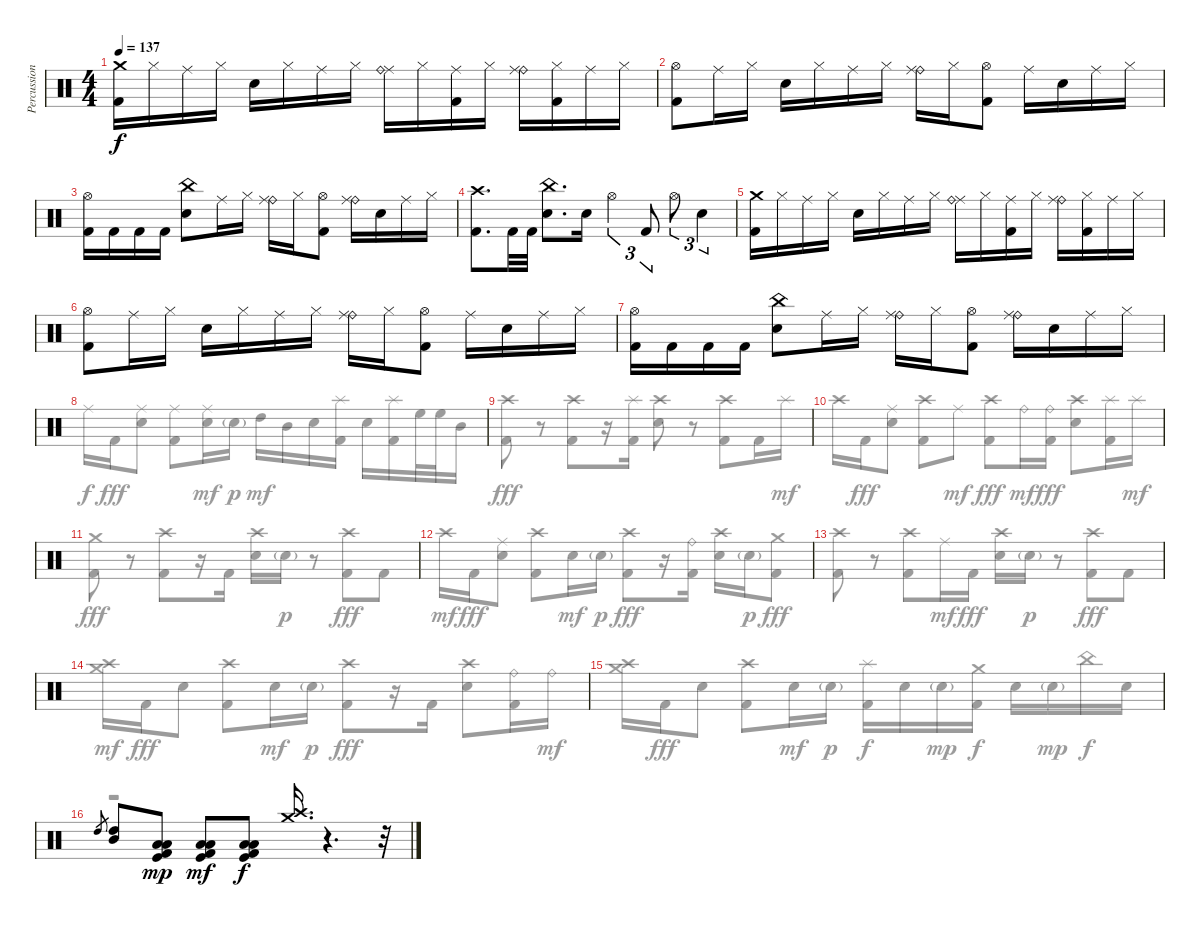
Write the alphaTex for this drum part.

\track ("Percussion" "Percussion") {instrument percussion}
\staff {score}
\articulation defaults
\voice
\ts (4 4)
\tempo 137
\clef neutral
\ks c
("Crash medium (hit)" "Kick (hit) 2").16{dy f} "Hi-Hat (closed)".16 "Ride (middle)".16 "Hi-Hat (closed)".16 "Snare (hit) 2".16 "Hi-Hat (closed)".16 "Ride (middle)".16 "Hi-Hat (closed)".16 ("Ride (middle)" "Ride (bell)").16 "Hi-Hat (closed)".16 ("Ride (middle)" "Kick (hit) 2").16 "Hi-Hat (closed)".16 ("Ride (bell)" "Ride (middle)").16 ("Hi-Hat (closed)" "Kick (hit) 2").16 "Ride (middle)".16 "Hi-Hat (closed)".16 |
("Hi-Hat (open)" "Kick (hit) 2").8 "Ride (middle)".16 "Hi-Hat (closed)".16 "Snare (hit) 2".16 "Hi-Hat (closed)".16 "Ride (middle)".16 "Hi-Hat (closed)".16 ("Ride (bell)" "Ride (middle)").16 "Hi-Hat (closed)".16 ("Hi-Hat (open)" "Kick (hit) 2").8 "Ride (middle)".16 "Snare (hit) 2".16 "Ride (middle)".16 "Hi-Hat (closed)".16 |
("Hi-Hat (open)" "Kick (hit) 2").16 "Kick (hit) 2".16 "Kick (hit) 2".16 "Kick (hit) 2".16 ("China (hit)" "Snare (hit) 2").8 "Ride (middle)".16 "Hi-Hat (closed)".16 ("Ride (bell)" "Ride (middle)").16 "Hi-Hat (closed)".16 ("Hi-Hat (open)" "Kick (hit) 2").8 ("Ride (bell)" "Ride (middle)").16 "Snare (hit) 2".16 "Ride (middle)".16 "Hi-Hat (closed)".16 |
("Crash high (hit)" "Kick (hit) 2").8{d} "Kick (hit) 2".32 "Kick (hit) 2".32 ("China (hit)" "Snare (hit) 2").8{d} "Snare (hit) 2".16 "Hi-Hat (open)".4{tu (3 2)} "Kick (hit) 2".8{tu (3 2)} "Hi-Hat (open)".8{tu (3 2)} "Snare (hit) 2".4{tu (3 2)} |
("Crash medium (hit)" "Kick (hit) 2").16 "Hi-Hat (closed)".16 "Ride (middle)".16 "Hi-Hat (closed)".16 "Snare (hit) 2".16 "Hi-Hat (closed)".16 "Ride (middle)".16 "Hi-Hat (closed)".16 ("Ride (middle)" "Ride (bell)").16 "Hi-Hat (closed)".16 ("Ride (middle)" "Kick (hit) 2").16 "Hi-Hat (closed)".16 ("Ride (bell)" "Ride (middle)").16 ("Hi-Hat (closed)" "Kick (hit) 2").16 "Ride (middle)".16 "Hi-Hat (closed)".16 |
("Hi-Hat (open)" "Kick (hit) 2").8 "Ride (middle)".16 "Hi-Hat (closed)".16 "Snare (hit) 2".16 "Hi-Hat (closed)".16 "Ride (middle)".16 "Hi-Hat (closed)".16 ("Ride (bell)" "Ride (middle)").16 "Hi-Hat (closed)".16 ("Hi-Hat (open)" "Kick (hit) 2").8 "Ride (middle)".16 "Snare (hit) 2".16 "Ride (middle)".16 "Hi-Hat (closed)".16 |
("Hi-Hat (open)" "Kick (hit) 2").16 "Kick (hit) 2".16 "Kick (hit) 2".16 "Kick (hit) 2".16 ("China (hit)" "Snare (hit) 2").8 "Ride (middle)".16 "Hi-Hat (closed)".16 ("Ride (bell)" "Ride (middle)").16 "Hi-Hat (closed)".16 ("Hi-Hat (open)" "Kick (hit) 2").8 ("Ride (bell)" "Ride (middle)").16 "Snare (hit) 2".16 "Ride (middle)".16 "Hi-Hat (closed)".16 |
|
|
|
|
|
|
|
|
"High Tom (hit)".8{gr} ("High Tom (hit)" "Mid Tom (hit)").8 ("Kick (hit)" "Low Tom (hit)" "Low Floor Tom (hit)" "Kick (hit) 2").8{dy mp volume 12} ("Kick (hit)" "Low Tom (hit)" "Low Floor Tom (hit)" "Kick (hit) 2").8{dy mf} ("Kick (hit)" "Low Tom (hit)" "Low Floor Tom (hit)" "Kick (hit) 2").8{dy f} ("Crash medium (hit)" "Crash high (hit)").16{d} r.4{d volume 0} r.32
\voice
\clef neutral
\ottava regular
\simile none
\ks c
|
|
|
|
|
|
|
"Ride (middle)".16 "Kick (hit) 2".16{dy fff} ("Ride (middle)" "Electric Snare (hit)").8 ("Ride (middle)" "Kick (hit) 2").8 ("Ride (middle)" "Electric Snare (hit)").16{dy mf} "Electric Snare (hit)"{g}.16{dy p} "High Tom (hit)".16{dy mf} "Mid Tom (hit)".16 "Electric Snare (hit)".16 ("Splash (hit)" "Kick (hit) 2").16 "Electric Snare (hit)".16 ("Splash (hit)" "Kick (hit) 2").16 "High Floor Tom (hit)".32 "High Floor Tom (hit)".32 "Mid Tom (hit)".16 |
("Crash high (hit)" "Kick (hit) 2").8{dy fff} r.8 ("Crash high (hit)" "Kick (hit) 2").8 r.16 ("Splash (hit)" "Kick (hit) 2").16 ("Crash high (hit)" "Electric Snare (hit)").8 r.8 ("Crash high (hit)" "Kick (hit) 2").8 "Kick (hit) 2".16 "Splash (hit)".16{dy mf} |
"Crash high (hit)".16 "Kick (hit) 2".16{dy fff} ("Ride (middle)" "Electric Snare (hit)").8 ("Crash high (hit)" "Kick (hit) 2").8 "Ride (middle)".8{dy mf} ("Crash high (hit)" "Kick (hit) 2").8{dy fff} "Ride (bell)".16{dy mf} ("Ride (bell)" "Kick (hit) 2").16{dy fff} ("Crash high (hit)" "Electric Snare (hit)").8 ("Splash (hit)" "Kick (hit) 2").16 "Splash (hit)".16{dy mf} |
("Crash medium (hit)" "Kick (hit) 2").8{dy fff} r.8 ("Crash high (hit)" "Kick (hit) 2").8 r.16 "Kick (hit) 2".16 ("Crash high (hit)" "Electric Snare (hit)").16 "Electric Snare (hit)"{g}.16{dy p} r.8 ("Crash high (hit)" "Kick (hit) 2").8{dy fff} "Kick (hit) 2".8 |
"Crash high (hit)".16{dy mf} "Kick (hit) 2".16{dy fff} ("Ride (middle)" "Electric Snare (hit)").8 ("Crash high (hit)" "Kick (hit) 2").8 "Electric Snare (hit)".16{dy mf} "Electric Snare (hit)"{g}.16{dy p} ("Crash high (hit)" "Kick (hit) 2").8{dy fff} r.16 ("Ride (bell)" "Kick (hit) 2").16 ("Crash high (hit)" "Electric Snare (hit)").16 "Electric Snare (hit)"{g}.16{dy p} ("Crash medium (hit)" "Kick (hit) 2").8{dy fff} |
("Crash high (hit)" "Kick (hit) 2").8 r.8 ("Crash high (hit)" "Kick (hit) 2").8 "Ride (middle)".16{dy mf} "Kick (hit) 2".16{dy fff} ("Crash high (hit)" "Electric Snare (hit)").16 "Electric Snare (hit)"{g}.16{dy p} r.8 ("Crash high (hit)" "Kick (hit) 2").8{dy fff} "Kick (hit) 2".8 |
("Crash medium (hit)" "Crash high (hit)").16{dy mf} "Kick (hit) 2".16{dy fff} "Electric Snare (hit)".8 ("Crash high (hit)" "Kick (hit) 2").8 "Electric Snare (hit)".16{dy mf} "Electric Snare (hit)"{g}.16{dy p} ("Crash high (hit)" "Kick (hit) 2").8{dy fff} r.16 "Kick (hit) 2".16 ("Crash high (hit)" "Electric Snare (hit)").8 ("Ride (bell)" "Kick (hit) 2").16 "Ride (bell)".16{dy mf} |
("Crash medium (hit)" "Crash high (hit)").16 "Kick (hit) 2".16{dy fff} "Electric Snare (hit)".8 ("Crash high (hit)" "Kick (hit) 2").8 "Electric Snare (hit)".16{dy mf} "Electric Snare (hit)"{g}.16{dy p} ("Splash (hit)" "Kick (hit) 2").16{dy f} "Electric Snare (hit)".16 "Electric Snare (hit)"{g}.16{dy mp} ("Crash medium (hit)" "Kick (hit) 2").16{dy f} "Electric Snare (hit)".16 "Electric Snare (hit)"{g}.16{dy mp} "China (hit)".16{dy f} "Electric Snare (hit)".16 |
r.1
